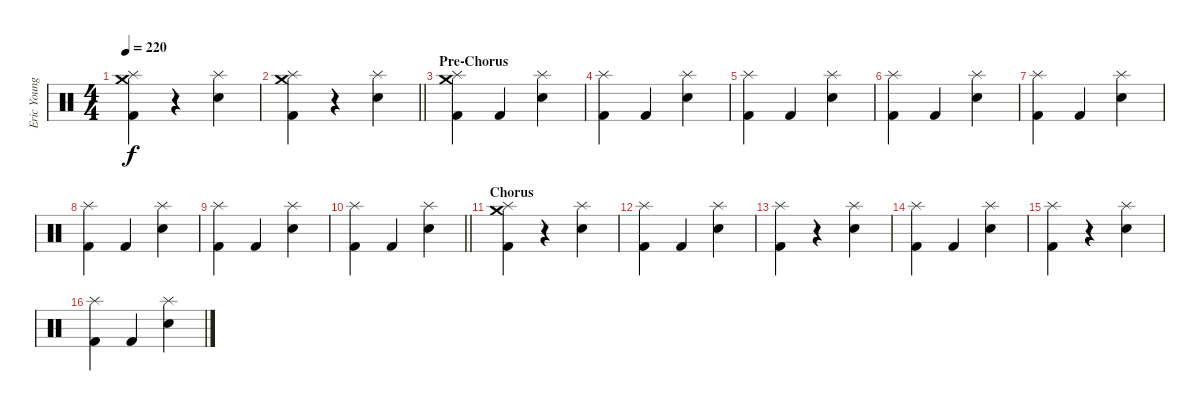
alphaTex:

\track ("Eric Young (Drums)" "Eric Young") {instrument percussion}
\staff {score}
\articulation defaults
\ts (4 4)
\tempo 220
\clef neutral
\ks c
("Splash (hit)" "Kick (hit) 2" "Crash medium (hit)").4{dy f} r.4 ("Splash (hit)" "Snare (hit) 2").4 |
\barLineRight lightlight
("Splash (hit)" "Kick (hit) 2" "Crash medium (hit)").4 r.4 ("Splash (hit)" "Snare (hit) 2").4 |
\section ("" "Pre-Chorus")
("Splash (hit)" "Kick (hit) 2" "Crash medium (hit)").4 "Kick (hit) 2".4 ("Splash (hit)" "Snare (hit) 2").4 |
("Splash (hit)" "Kick (hit) 2").4 "Kick (hit) 2".4 ("Splash (hit)" "Snare (hit) 2").4 |
("Splash (hit)" "Kick (hit) 2").4 "Kick (hit) 2".4 ("Splash (hit)" "Snare (hit) 2").4 |
("Splash (hit)" "Kick (hit) 2").4 "Kick (hit) 2".4 ("Splash (hit)" "Snare (hit) 2").4 |
("Splash (hit)" "Kick (hit) 2").4 "Kick (hit) 2".4 ("Splash (hit)" "Snare (hit) 2").4 |
("Splash (hit)" "Kick (hit) 2").4 "Kick (hit) 2".4 ("Splash (hit)" "Snare (hit) 2").4 |
("Splash (hit)" "Kick (hit) 2").4 "Kick (hit) 2".4 ("Splash (hit)" "Snare (hit) 2").4 |
\barLineRight lightlight
("Splash (hit)" "Kick (hit) 2").4 "Kick (hit) 2".4 ("Splash (hit)" "Snare (hit) 2").4 |
\section ("" "Chorus")
("Splash (hit)" "Kick (hit) 2" "Crash medium (hit)").4 r.4 ("Splash (hit)" "Snare (hit) 2").4 |
("Splash (hit)" "Kick (hit) 2").4 "Kick (hit) 2".4 ("Splash (hit)" "Snare (hit) 2").4 |
("Splash (hit)" "Kick (hit) 2").4 r.4 ("Splash (hit)" "Snare (hit) 2").4 |
("Splash (hit)" "Kick (hit) 2").4 "Kick (hit) 2".4 ("Splash (hit)" "Snare (hit) 2").4 |
("Splash (hit)" "Kick (hit) 2").4 r.4 ("Splash (hit)" "Snare (hit) 2").4 |
("Splash (hit)" "Kick (hit) 2").4 "Kick (hit) 2".4 ("Splash (hit)" "Snare (hit) 2").4
